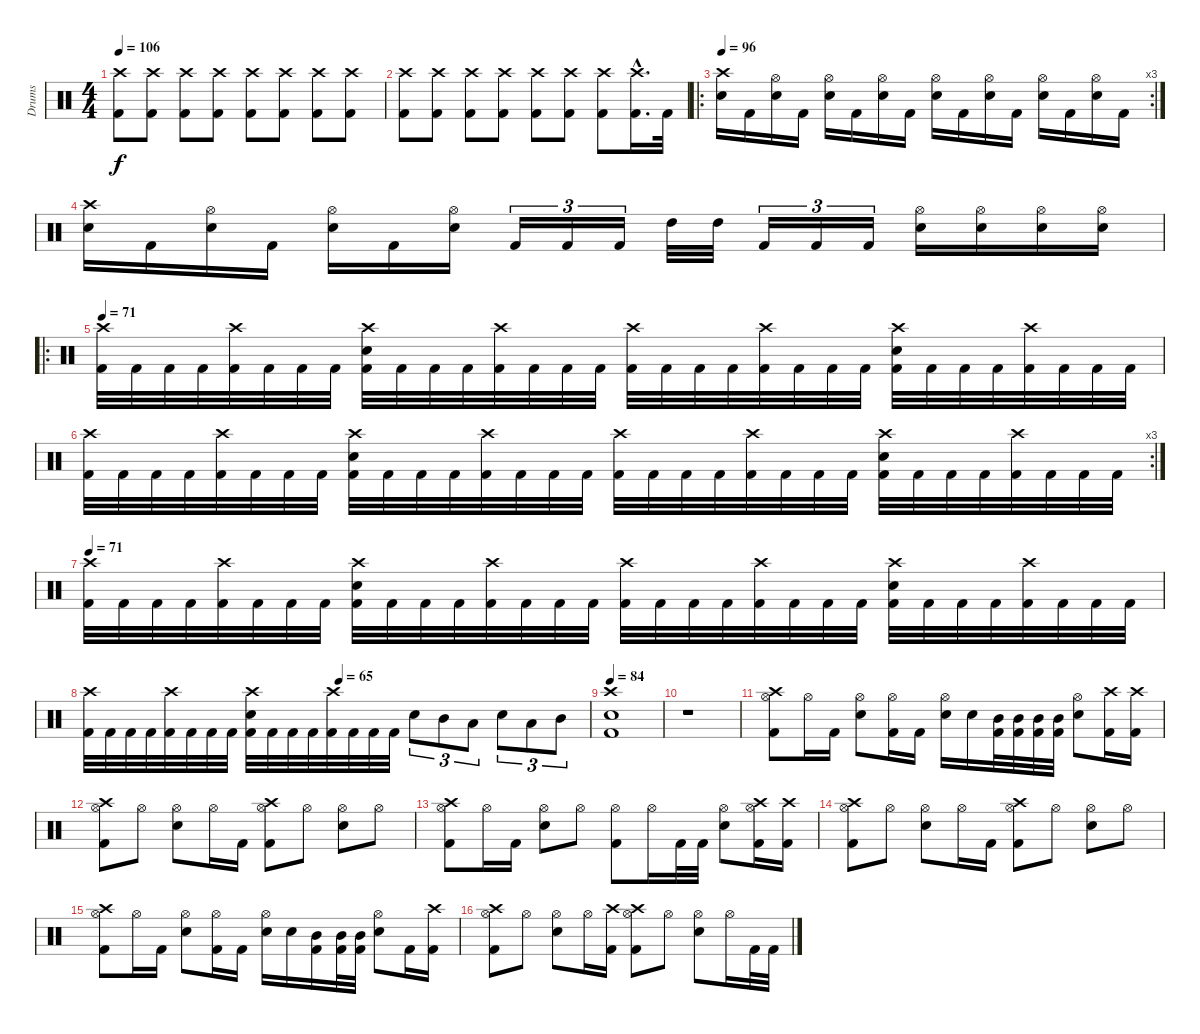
\track ("Drums" "Drums") {instrument percussion}
\staff {score}
\articulation defaults
\ts (4 4)
\tempo 106
\clef neutral
\ks c
("Crash high (hit)" "Kick (hit) 2").8{dy f} ("Crash high (hit)" "Kick (hit) 2").8 ("Crash high (hit)" "Kick (hit) 2").8 ("Crash high (hit)" "Kick (hit) 2").8 ("Crash high (hit)" "Kick (hit) 2").8 ("Crash high (hit)" "Kick (hit) 2").8 ("Crash high (hit)" "Kick (hit) 2").8 ("Crash high (hit)" "Kick (hit) 2").8 |
("Crash high (hit)" "Kick (hit) 2").8 ("Crash high (hit)" "Kick (hit) 2").8 ("Crash high (hit)" "Kick (hit) 2").8 ("Crash high (hit)" "Kick (hit) 2").8 ("Crash high (hit)" "Kick (hit) 2").8 ("Crash high (hit)" "Kick (hit) 2").8 ("Crash high (hit)" "Kick (hit) 2").8 ("Crash high (hit)"{hac} "Kick (hit) 2"{hac}).16{d} "Kick (hit) 2".32 |
\ro
\rc 3
\tempo 96
("Crash high (hit)" "Electric Snare (hit)").16 "Kick (hit) 2".16 ("Hi-Hat (open)" "Electric Snare (hit)").16 "Kick (hit) 2".16 ("Hi-Hat (open)" "Electric Snare (hit)").16 "Kick (hit) 2".16 ("Hi-Hat (open)" "Electric Snare (hit)").16 "Kick (hit) 2".16 ("Hi-Hat (open)" "Electric Snare (hit)").16 "Kick (hit) 2".16 ("Hi-Hat (open)" "Electric Snare (hit)").16 "Kick (hit) 2".16 ("Hi-Hat (open)" "Electric Snare (hit)").16 "Kick (hit) 2".16 ("Hi-Hat (open)" "Electric Snare (hit)").16 "Kick (hit) 2".16 |
("Crash high (hit)" "Electric Snare (hit)").16 "Kick (hit) 2".16 ("Hi-Hat (open)" "Electric Snare (hit)").16 "Kick (hit) 2".16 ("Hi-Hat (open)" "Electric Snare (hit)").16 "Kick (hit) 2".16 ("Hi-Hat (open)" "Electric Snare (hit)").16 "Kick (hit) 2".16{tu (3 2)} "Kick (hit) 2".16{tu (3 2)} "Kick (hit) 2".16{tu (3 2)} "High Tom (hit)".32 "High Tom (hit)".32 "Kick (hit) 2".16{tu (3 2)} "Kick (hit) 2".16{tu (3 2)} "Kick (hit) 2".16{tu (3 2)} ("Hi-Hat (open)" "Electric Snare (hit)").16 ("Hi-Hat (open)" "Electric Snare (hit)").16 ("Hi-Hat (open)" "Electric Snare (hit)").16 ("Hi-Hat (open)" "Electric Snare (hit)").16 |
\ro
\tempo 71
("Crash high (hit)" "Kick (hit) 2").32 "Kick (hit) 2".32 "Kick (hit) 2".32 "Kick (hit) 2".32 ("Crash high (hit)" "Kick (hit) 2").32 "Kick (hit) 2".32 "Kick (hit) 2".32 "Kick (hit) 2".32 ("Crash high (hit)" "Electric Snare (hit)" "Kick (hit) 2").32 "Kick (hit) 2".32 "Kick (hit) 2".32 "Kick (hit) 2".32 ("Crash high (hit)" "Kick (hit) 2").32 "Kick (hit) 2".32 "Kick (hit) 2".32 "Kick (hit) 2".32 ("Crash high (hit)" "Kick (hit) 2").32 "Kick (hit) 2".32 "Kick (hit) 2".32 "Kick (hit) 2".32 ("Crash high (hit)" "Kick (hit) 2").32 "Kick (hit) 2".32 "Kick (hit) 2".32 "Kick (hit) 2".32 ("Crash high (hit)" "Electric Snare (hit)" "Kick (hit) 2").32 "Kick (hit) 2".32 "Kick (hit) 2".32 "Kick (hit) 2".32 ("Crash high (hit)" "Kick (hit) 2").32 "Kick (hit) 2".32 "Kick (hit) 2".32 "Kick (hit) 2".32 |
\rc 3
("Crash high (hit)" "Kick (hit) 2").32 "Kick (hit) 2".32 "Kick (hit) 2".32 "Kick (hit) 2".32 ("Crash high (hit)" "Kick (hit) 2").32 "Kick (hit) 2".32 "Kick (hit) 2".32 "Kick (hit) 2".32 ("Crash high (hit)" "Electric Snare (hit)" "Kick (hit) 2").32 "Kick (hit) 2".32 "Kick (hit) 2".32 "Kick (hit) 2".32 ("Crash high (hit)" "Kick (hit) 2").32 "Kick (hit) 2".32 "Kick (hit) 2".32 "Kick (hit) 2".32 ("Crash high (hit)" "Kick (hit) 2").32 "Kick (hit) 2".32 "Kick (hit) 2".32 "Kick (hit) 2".32 ("Crash high (hit)" "Kick (hit) 2").32 "Kick (hit) 2".32 "Kick (hit) 2".32 "Kick (hit) 2".32 ("Crash high (hit)" "Electric Snare (hit)" "Kick (hit) 2").32 "Kick (hit) 2".32 "Kick (hit) 2".32 "Kick (hit) 2".32 ("Crash high (hit)" "Kick (hit) 2").32 "Kick (hit) 2".32 "Kick (hit) 2".32 "Kick (hit) 2".32 |
\tempo 71
("Crash high (hit)" "Kick (hit) 2").32 "Kick (hit) 2".32 "Kick (hit) 2".32 "Kick (hit) 2".32 ("Crash high (hit)" "Kick (hit) 2").32 "Kick (hit) 2".32 "Kick (hit) 2".32 "Kick (hit) 2".32 ("Crash high (hit)" "Electric Snare (hit)" "Kick (hit) 2").32 "Kick (hit) 2".32 "Kick (hit) 2".32 "Kick (hit) 2".32 ("Crash high (hit)" "Kick (hit) 2").32 "Kick (hit) 2".32 "Kick (hit) 2".32 "Kick (hit) 2".32 ("Crash high (hit)" "Kick (hit) 2").32 "Kick (hit) 2".32 "Kick (hit) 2".32 "Kick (hit) 2".32 ("Crash high (hit)" "Kick (hit) 2").32 "Kick (hit) 2".32 "Kick (hit) 2".32 "Kick (hit) 2".32 ("Crash high (hit)" "Electric Snare (hit)" "Kick (hit) 2").32 "Kick (hit) 2".32 "Kick (hit) 2".32 "Kick (hit) 2".32 ("Crash high (hit)" "Kick (hit) 2").32 "Kick (hit) 2".32 "Kick (hit) 2".32 "Kick (hit) 2".32 |
\tempo (65 0.5)
("Crash high (hit)" "Kick (hit) 2").32 "Kick (hit) 2".32 "Kick (hit) 2".32 "Kick (hit) 2".32 ("Crash high (hit)" "Kick (hit) 2").32 "Kick (hit) 2".32 "Kick (hit) 2".32 "Kick (hit) 2".32 ("Crash high (hit)" "Electric Snare (hit)" "Kick (hit) 2").32 "Kick (hit) 2".32 "Kick (hit) 2".32 "Kick (hit) 2".32 ("Crash high (hit)" "Kick (hit) 2").32 "Kick (hit) 2".32 "Kick (hit) 2".32 "Kick (hit) 2".32 "Electric Snare (hit)".8{tu (3 2)} "Mid Tom (hit)".8{tu (3 2)} "Low Tom (hit)".8{tu (3 2)} "Electric Snare (hit)".8{tu (3 2)} "Low Tom (hit)".8{tu (3 2)} "Mid Tom (hit)".8{tu (3 2)} |
\tempo 84
("Crash high (hit)" "Electric Snare (hit)" "Kick (hit) 2").1 |
r.1 |
("Crash high (hit)" "Hi-Hat (open)" "Kick (hit) 2").8 "Hi-Hat (open)".16 "Kick (hit) 2".16 ("Hi-Hat (open)" "Electric Snare (hit)").8 ("Hi-Hat (open)" "Kick (hit) 2").16 "Kick (hit) 2".16 ("Hi-Hat (open)" "Electric Snare (hit)").16 "Electric Snare (hit)".16 ("Mid Tom (hit)" "Kick (hit) 2").32 ("Mid Tom (hit)" "Kick (hit) 2").32 ("Mid Tom (hit)" "Kick (hit) 2").32 ("Mid Tom (hit)" "Kick (hit) 2").32 ("Hi-Hat (open)" "Electric Snare (hit)").8 ("Crash high (hit)" "Kick (hit) 2").16 ("Crash high (hit)" "Kick (hit) 2").16 |
("Crash high (hit)" "Hi-Hat (open)" "Kick (hit) 2").8 "Hi-Hat (open)".8 ("Hi-Hat (open)" "Electric Snare (hit)").8 "Hi-Hat (open)".16 "Kick (hit) 2".16 ("Crash high (hit)" "Hi-Hat (open)" "Kick (hit) 2").8 "Hi-Hat (open)".8 ("Hi-Hat (open)" "Electric Snare (hit)").8 "Hi-Hat (open)".8 |
("Crash high (hit)" "Hi-Hat (open)" "Kick (hit) 2").8 "Hi-Hat (open)".16 "Kick (hit) 2".16 ("Hi-Hat (open)" "Electric Snare (hit)").8 "Hi-Hat (open)".8 ("Hi-Hat (open)" "Kick (hit) 2").8 "Hi-Hat (open)".16 "Kick (hit) 2".32 "Kick (hit) 2".32 ("Hi-Hat (open)" "Electric Snare (hit)").8 ("Crash high (hit)" "Hi-Hat (open)" "Kick (hit) 2").16 ("Crash high (hit)" "Kick (hit) 2").16 |
("Crash high (hit)" "Hi-Hat (open)" "Kick (hit) 2").8 "Hi-Hat (open)".8 ("Hi-Hat (open)" "Electric Snare (hit)").8 "Hi-Hat (open)".16 "Kick (hit) 2".16 ("Crash high (hit)" "Hi-Hat (open)" "Kick (hit) 2").8 "Hi-Hat (open)".8 ("Hi-Hat (open)" "Electric Snare (hit)").8 "Hi-Hat (open)".8 |
("Crash high (hit)" "Hi-Hat (open)" "Kick (hit) 2").8 "Hi-Hat (open)".16 "Kick (hit) 2".16 ("Hi-Hat (open)" "Electric Snare (hit)").8 ("Hi-Hat (open)" "Kick (hit) 2").16 "Kick (hit) 2".16 ("Hi-Hat (open)" "Electric Snare (hit)").16 "Electric Snare (hit)".16 ("Mid Tom (hit)" "Kick (hit) 2").16 ("Mid Tom (hit)" "Kick (hit) 2").32 ("Mid Tom (hit)" "Kick (hit) 2").32 ("Hi-Hat (open)" "Electric Snare (hit)").8 "Kick (hit) 2".16 ("Crash high (hit)" "Kick (hit) 2").16 |
("Crash high (hit)" "Hi-Hat (open)" "Kick (hit) 2").8 "Hi-Hat (open)".8 ("Hi-Hat (open)" "Electric Snare (hit)").8 "Hi-Hat (open)".16 ("Crash high (hit)" "Kick (hit) 2").16 ("Crash high (hit)" "Hi-Hat (open)" "Kick (hit) 2").8 "Hi-Hat (open)".8 ("Hi-Hat (open)" "Electric Snare (hit)").8 "Hi-Hat (open)".16 "Kick (hit) 2".32 "Kick (hit) 2".32
